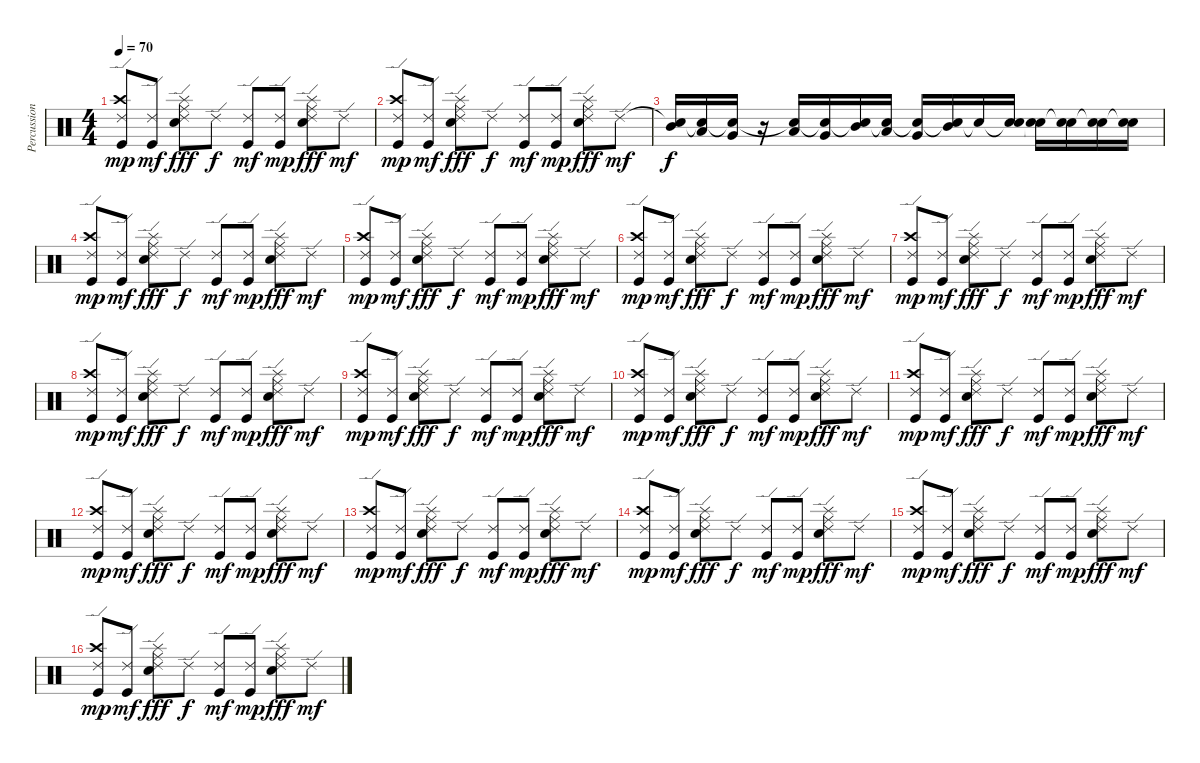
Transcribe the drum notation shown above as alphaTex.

\track ("Percussions" "Percussion") {instrument percussion}
\staff {score}
\articulation defaults
\ts (4 4)
\tempo 70
\clef neutral
\ks c
("Ride (edge) 2" "Crash high (hit)" "Kick (hit)").8{dy mp} ("Ride (edge) 2" "Kick (hit)").8{dy mf} ("Ride (middle)" "Ride (edge) 2" "Splash (hit)" "Electric Snare (hit)").8{dy fff} "Ride (edge) 2".8{dy f} ("Ride (edge) 2" "Kick (hit)").8{dy mf} ("Ride (edge) 2" "Kick (hit)").8{dy mp} ("Ride (middle)" "Ride (edge) 2" "Splash (hit)" "Electric Snare (hit)").8{dy fff} "Ride (edge) 2".8{dy mf} |
("Ride (edge) 2" "Crash high (hit)" "Kick (hit)").8{dy mp} ("Ride (edge) 2" "Kick (hit)").8{dy mf} ("Ride (middle)" "Ride (edge) 2" "Splash (hit)" "Electric Snare (hit)").8{dy fff} "Ride (edge) 2".8{dy f} ("Ride (edge) 2" "Kick (hit)").8{dy mf} ("Ride (edge) 2" "Kick (hit)").8{dy mp} ("Ride (middle)" "Ride (edge) 2" "Splash (hit)" "Electric Snare (hit)").8{dy fff} "Ride (edge) 2".8{dy mf} |
("Snare (hit)"{t} "Mid Tom (hit)").16{dy f} ("Snare (hit)"{t} "Low Tom (hit)").16 ("Snare (hit)"{t} "Very Low Tom (hit)").16 r.16 ("Snare (hit)"{t} "Low Tom (hit)").16 ("Snare (hit)"{t} "Very Low Tom (hit)").16 ("Snare (hit)"{t} "Mid Tom (hit)").16 ("Snare (hit)"{t} "Low Tom (hit)").16 ("Snare (hit)"{t} "Very Low Tom (hit)").16 ("Snare (hit)"{t} "Mid Tom (hit)").16 "Snare (hit)"{t}.16 ("Snare (hit)"{t} "Electric Snare (hit)").16 ("Snare (hit)"{t} "Electric Snare (hit)").16 ("Snare (hit)"{t} "Electric Snare (hit)").16 ("Snare (hit)"{t} "Electric Snare (hit)").16 ("Snare (hit)"{t} "Electric Snare (hit)").16 |
("Ride (edge) 2" "Crash high (hit)" "Kick (hit)").8{dy mp} ("Ride (edge) 2" "Kick (hit)").8{dy mf} ("Ride (middle)" "Ride (edge) 2" "Splash (hit)" "Electric Snare (hit)").8{dy fff} "Ride (edge) 2".8{dy f} ("Ride (edge) 2" "Kick (hit)").8{dy mf} ("Ride (edge) 2" "Kick (hit)").8{dy mp} ("Ride (middle)" "Ride (edge) 2" "Splash (hit)" "Electric Snare (hit)").8{dy fff} "Ride (edge) 2".8{dy mf} |
("Ride (edge) 2" "Crash high (hit)" "Kick (hit)").8{dy mp} ("Ride (edge) 2" "Kick (hit)").8{dy mf} ("Ride (middle)" "Ride (edge) 2" "Splash (hit)" "Electric Snare (hit)").8{dy fff} "Ride (edge) 2".8{dy f} ("Ride (edge) 2" "Kick (hit)").8{dy mf} ("Ride (edge) 2" "Kick (hit)").8{dy mp} ("Ride (middle)" "Ride (edge) 2" "Splash (hit)" "Electric Snare (hit)").8{dy fff} "Ride (edge) 2".8{dy mf} |
("Ride (edge) 2" "Crash high (hit)" "Kick (hit)").8{dy mp} ("Ride (edge) 2" "Kick (hit)").8{dy mf} ("Ride (middle)" "Ride (edge) 2" "Splash (hit)" "Electric Snare (hit)").8{dy fff} "Ride (edge) 2".8{dy f} ("Ride (edge) 2" "Kick (hit)").8{dy mf} ("Ride (edge) 2" "Kick (hit)").8{dy mp} ("Ride (middle)" "Ride (edge) 2" "Splash (hit)" "Electric Snare (hit)").8{dy fff} "Ride (edge) 2".8{dy mf} |
("Ride (edge) 2" "Crash high (hit)" "Kick (hit)").8{dy mp} ("Ride (edge) 2" "Kick (hit)").8{dy mf} ("Ride (middle)" "Ride (edge) 2" "Splash (hit)" "Electric Snare (hit)").8{dy fff} "Ride (edge) 2".8{dy f} ("Ride (edge) 2" "Kick (hit)").8{dy mf} ("Ride (edge) 2" "Kick (hit)").8{dy mp} ("Ride (middle)" "Ride (edge) 2" "Splash (hit)" "Electric Snare (hit)").8{dy fff} "Ride (edge) 2".8{dy mf} |
("Ride (edge) 2" "Crash high (hit)" "Kick (hit)").8{dy mp} ("Ride (edge) 2" "Kick (hit)").8{dy mf} ("Ride (middle)" "Ride (edge) 2" "Splash (hit)" "Electric Snare (hit)").8{dy fff} "Ride (edge) 2".8{dy f} ("Ride (edge) 2" "Kick (hit)").8{dy mf} ("Ride (edge) 2" "Kick (hit)").8{dy mp} ("Ride (middle)" "Ride (edge) 2" "Splash (hit)" "Electric Snare (hit)").8{dy fff} "Ride (edge) 2".8{dy mf} |
("Ride (edge) 2" "Crash high (hit)" "Kick (hit)").8{dy mp} ("Ride (edge) 2" "Kick (hit)").8{dy mf} ("Ride (middle)" "Ride (edge) 2" "Splash (hit)" "Electric Snare (hit)").8{dy fff} "Ride (edge) 2".8{dy f} ("Ride (edge) 2" "Kick (hit)").8{dy mf} ("Ride (edge) 2" "Kick (hit)").8{dy mp} ("Ride (middle)" "Ride (edge) 2" "Splash (hit)" "Electric Snare (hit)").8{dy fff} "Ride (edge) 2".8{dy mf} |
("Ride (edge) 2" "Crash high (hit)" "Kick (hit)").8{dy mp} ("Ride (edge) 2" "Kick (hit)").8{dy mf} ("Ride (middle)" "Ride (edge) 2" "Splash (hit)" "Electric Snare (hit)").8{dy fff} "Ride (edge) 2".8{dy f} ("Ride (edge) 2" "Kick (hit)").8{dy mf} ("Ride (edge) 2" "Kick (hit)").8{dy mp} ("Ride (middle)" "Ride (edge) 2" "Splash (hit)" "Electric Snare (hit)").8{dy fff} "Ride (edge) 2".8{dy mf} |
("Ride (edge) 2" "Crash high (hit)" "Kick (hit)").8{dy mp} ("Ride (edge) 2" "Kick (hit)").8{dy mf} ("Ride (middle)" "Ride (edge) 2" "Splash (hit)" "Electric Snare (hit)").8{dy fff} "Ride (edge) 2".8{dy f} ("Ride (edge) 2" "Kick (hit)").8{dy mf} ("Ride (edge) 2" "Kick (hit)").8{dy mp} ("Ride (middle)" "Ride (edge) 2" "Splash (hit)" "Electric Snare (hit)").8{dy fff} "Ride (edge) 2".8{dy mf} |
("Ride (edge) 2" "Crash high (hit)" "Kick (hit)").8{dy mp} ("Ride (edge) 2" "Kick (hit)").8{dy mf} ("Ride (middle)" "Ride (edge) 2" "Splash (hit)" "Electric Snare (hit)").8{dy fff} "Ride (edge) 2".8{dy f} ("Ride (edge) 2" "Kick (hit)").8{dy mf} ("Ride (edge) 2" "Kick (hit)").8{dy mp} ("Ride (middle)" "Ride (edge) 2" "Splash (hit)" "Electric Snare (hit)").8{dy fff} "Ride (edge) 2".8{dy mf} |
("Ride (edge) 2" "Crash high (hit)" "Kick (hit)").8{dy mp} ("Ride (edge) 2" "Kick (hit)").8{dy mf} ("Ride (middle)" "Ride (edge) 2" "Splash (hit)" "Electric Snare (hit)").8{dy fff} "Ride (edge) 2".8{dy f} ("Ride (edge) 2" "Kick (hit)").8{dy mf} ("Ride (edge) 2" "Kick (hit)").8{dy mp} ("Ride (middle)" "Ride (edge) 2" "Splash (hit)" "Electric Snare (hit)").8{dy fff} "Ride (edge) 2".8{dy mf} |
("Ride (edge) 2" "Crash high (hit)" "Kick (hit)").8{dy mp} ("Ride (edge) 2" "Kick (hit)").8{dy mf} ("Ride (middle)" "Ride (edge) 2" "Splash (hit)" "Electric Snare (hit)").8{dy fff} "Ride (edge) 2".8{dy f} ("Ride (edge) 2" "Kick (hit)").8{dy mf} ("Ride (edge) 2" "Kick (hit)").8{dy mp} ("Ride (middle)" "Ride (edge) 2" "Splash (hit)" "Electric Snare (hit)").8{dy fff} "Ride (edge) 2".8{dy mf} |
("Ride (edge) 2" "Crash high (hit)" "Kick (hit)").8{dy mp} ("Ride (edge) 2" "Kick (hit)").8{dy mf} ("Ride (middle)" "Ride (edge) 2" "Splash (hit)" "Electric Snare (hit)").8{dy fff} "Ride (edge) 2".8{dy f} ("Ride (edge) 2" "Kick (hit)").8{dy mf} ("Ride (edge) 2" "Kick (hit)").8{dy mp} ("Ride (middle)" "Ride (edge) 2" "Splash (hit)" "Electric Snare (hit)").8{dy fff} "Ride (edge) 2".8{dy mf} |
("Ride (edge) 2" "Crash high (hit)" "Kick (hit)").8{dy mp} ("Ride (edge) 2" "Kick (hit)").8{dy mf} ("Ride (middle)" "Ride (edge) 2" "Splash (hit)" "Electric Snare (hit)").8{dy fff} "Ride (edge) 2".8{dy f} ("Ride (edge) 2" "Kick (hit)").8{dy mf} ("Ride (edge) 2" "Kick (hit)").8{dy mp} ("Ride (middle)" "Ride (edge) 2" "Splash (hit)" "Electric Snare (hit)").8{dy fff} "Ride (edge) 2".8{dy mf}
